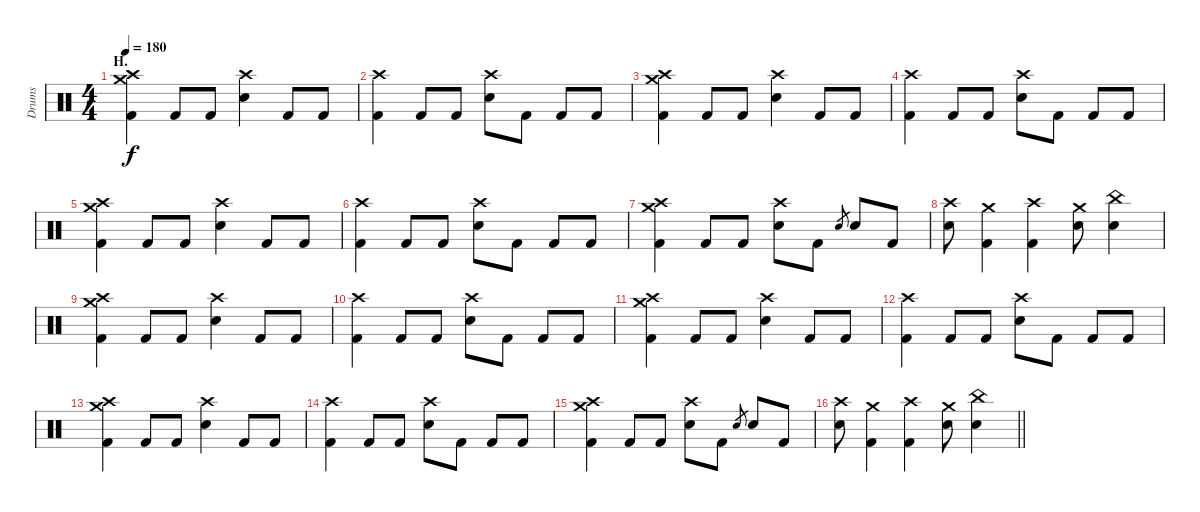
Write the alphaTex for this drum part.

\track ("Drums" "Drums") {instrument percussion}
\staff {score}
\articulation defaults
\ts (4 4)
\section ("" "H.")
\tempo 180
\clef neutral
\ks c
("Crash medium (hit)" "Crash high (hit)" "Kick (hit) 2").4{dy f} "Kick (hit) 2".8 "Kick (hit) 2".8 ("Crash high (hit)" "Electric Snare (hit)").4 "Kick (hit) 2".8 "Kick (hit) 2".8 |
("Crash high (hit)" "Kick (hit) 2").4 "Kick (hit) 2".8 "Kick (hit) 2".8 ("Crash high (hit)" "Electric Snare (hit)").8 "Kick (hit) 2".8 "Kick (hit) 2".8 "Kick (hit) 2".8 |
("Crash medium (hit)" "Crash high (hit)" "Kick (hit) 2").4 "Kick (hit) 2".8 "Kick (hit) 2".8 ("Crash high (hit)" "Electric Snare (hit)").4 "Kick (hit) 2".8 "Kick (hit) 2".8 |
("Crash high (hit)" "Kick (hit) 2").4 "Kick (hit) 2".8 "Kick (hit) 2".8 ("Crash high (hit)" "Electric Snare (hit)").8 "Kick (hit) 2".8 "Kick (hit) 2".8 "Kick (hit) 2".8 |
("Crash medium (hit)" "Crash high (hit)" "Kick (hit) 2").4 "Kick (hit) 2".8 "Kick (hit) 2".8 ("Crash high (hit)" "Electric Snare (hit)").4 "Kick (hit) 2".8 "Kick (hit) 2".8 |
("Crash high (hit)" "Kick (hit) 2").4 "Kick (hit) 2".8 "Kick (hit) 2".8 ("Crash high (hit)" "Electric Snare (hit)").8 "Kick (hit) 2".8 "Kick (hit) 2".8 "Kick (hit) 2".8 |
("Crash medium (hit)" "Crash high (hit)" "Kick (hit) 2").4 "Kick (hit) 2".8 "Kick (hit) 2".8 ("Crash high (hit)" "Electric Snare (hit)").8 "Kick (hit) 2".8 "Electric Snare (hit)".8{gr} "Electric Snare (hit)".8 "Kick (hit) 2".8 |
("Crash high (hit)" "Electric Snare (hit)").8 ("Crash medium (hit)" "Kick (hit) 2").4 ("Crash high (hit)" "Kick (hit) 2").4 ("Crash medium (hit)" "Electric Snare (hit)").8 ("China (hit)" "Electric Snare (hit)").4 |
("Crash medium (hit)" "Crash high (hit)" "Kick (hit) 2").4 "Kick (hit) 2".8 "Kick (hit) 2".8 ("Crash high (hit)" "Electric Snare (hit)").4 "Kick (hit) 2".8 "Kick (hit) 2".8 |
("Crash high (hit)" "Kick (hit) 2").4 "Kick (hit) 2".8 "Kick (hit) 2".8 ("Crash high (hit)" "Electric Snare (hit)").8 "Kick (hit) 2".8 "Kick (hit) 2".8 "Kick (hit) 2".8 |
("Crash medium (hit)" "Crash high (hit)" "Kick (hit) 2").4 "Kick (hit) 2".8 "Kick (hit) 2".8 ("Crash high (hit)" "Electric Snare (hit)").4 "Kick (hit) 2".8 "Kick (hit) 2".8 |
("Crash high (hit)" "Kick (hit) 2").4 "Kick (hit) 2".8 "Kick (hit) 2".8 ("Crash high (hit)" "Electric Snare (hit)").8 "Kick (hit) 2".8 "Kick (hit) 2".8 "Kick (hit) 2".8 |
("Crash medium (hit)" "Crash high (hit)" "Kick (hit) 2").4 "Kick (hit) 2".8 "Kick (hit) 2".8 ("Crash high (hit)" "Electric Snare (hit)").4 "Kick (hit) 2".8 "Kick (hit) 2".8 |
("Crash high (hit)" "Kick (hit) 2").4 "Kick (hit) 2".8 "Kick (hit) 2".8 ("Crash high (hit)" "Electric Snare (hit)").8 "Kick (hit) 2".8 "Kick (hit) 2".8 "Kick (hit) 2".8 |
("Crash medium (hit)" "Crash high (hit)" "Kick (hit) 2").4 "Kick (hit) 2".8 "Kick (hit) 2".8 ("Crash high (hit)" "Electric Snare (hit)").8 "Kick (hit) 2".8 "Electric Snare (hit)".8{gr} "Electric Snare (hit)".8 "Kick (hit) 2".8 |
\barLineRight lightlight
("Crash high (hit)" "Electric Snare (hit)").8 ("Crash medium (hit)" "Kick (hit) 2").4 ("Crash high (hit)" "Kick (hit) 2").4 ("Crash medium (hit)" "Electric Snare (hit)").8 ("China (hit)" "Electric Snare (hit)").4
